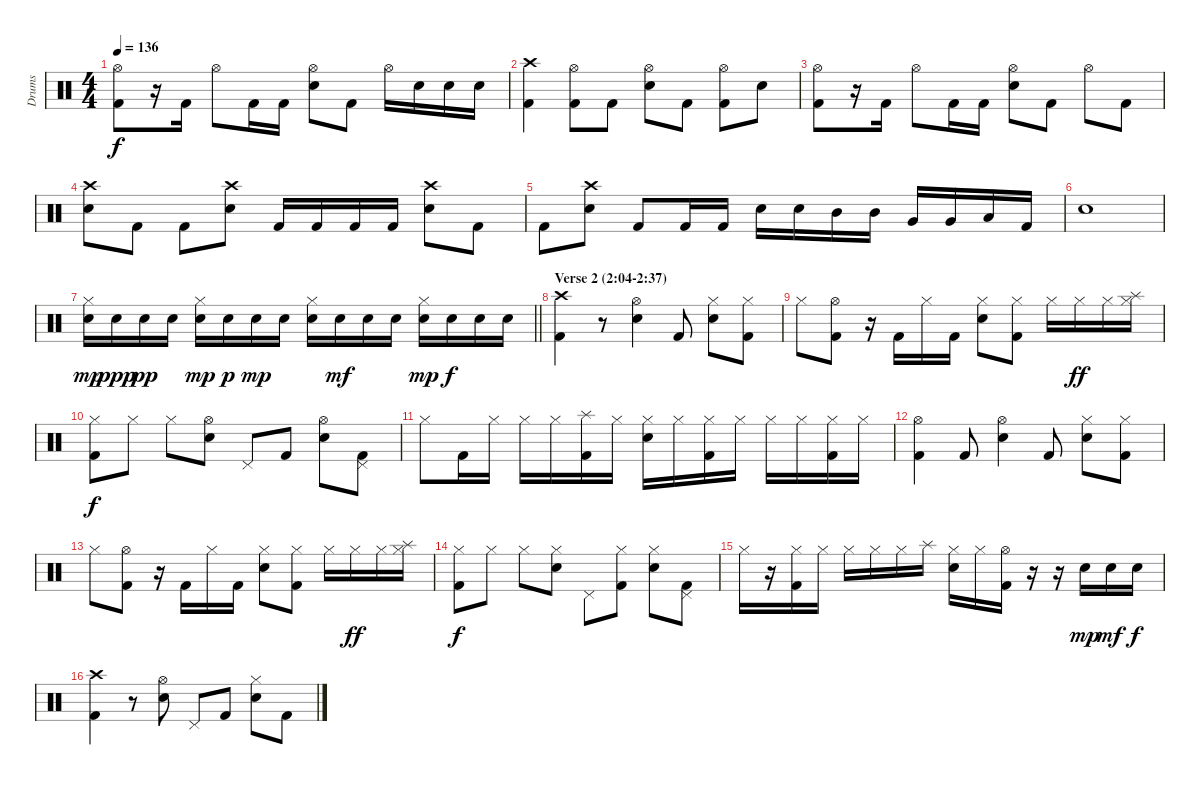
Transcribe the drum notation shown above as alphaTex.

\track ("Drums" "Drums") {instrument percussion}
\staff {score}
\articulation defaults
\ts (4 4)
\tempo 136
\clef neutral
\ks c
("Kick (hit) 2" "Hi-Hat (open)").8{dy f} r.16 "Kick (hit) 2".16 "Hi-Hat (open)".8 "Kick (hit) 2".16 "Kick (hit) 2".16 ("Hi-Hat (open)" "Snare (hit) 2").8 "Kick (hit) 2".8 "Hi-Hat (open)".16 "Snare (hit) 2".16 "Snare (hit) 2".16 "Snare (hit) 2".16 |
("Crash high (hit)" "Kick (hit) 2").4 ("Kick (hit) 2" "Hi-Hat (open)").8 "Kick (hit) 2".8 ("Snare (hit) 2" "Hi-Hat (open)").8 "Kick (hit) 2".8 ("Kick (hit) 2" "Hi-Hat (open)").8 "Snare (hit) 2".8 |
("Kick (hit) 2" "Hi-Hat (open)").8 r.16 "Kick (hit) 2".16 "Hi-Hat (open)".8 "Kick (hit) 2".16 "Kick (hit) 2".16 ("Hi-Hat (open)" "Snare (hit) 2").8 "Kick (hit) 2".8 "Hi-Hat (open)".8 "Kick (hit) 2".8 |
("Crash high (hit)" "Snare (hit) 2").8 "Kick (hit) 2".8 "Kick (hit) 2".8 ("Snare (hit) 2" "Crash high (hit)").8 "Kick (hit) 2".16 "Kick (hit) 2".16 "Kick (hit) 2".16 "Kick (hit) 2".16 ("Crash high (hit)" "Snare (hit) 2").8 "Kick (hit) 2".8 |
"Kick (hit) 2".8 ("Crash high (hit)" "Snare (hit) 2").8 "Kick (hit) 2".8 "Kick (hit) 2".16 "Kick (hit) 2".16 "Snare (hit) 2".16 "Snare (hit) 2".16 "Mid Tom (hit)".16 "Mid Tom (hit)".16 "Very Low Tom (hit)".16 "Very Low Tom (hit)".16 "Low Floor Tom (hit)".16 "Kick (hit) 2".16 |
"Snare (hit) 2".1 |
\barLineRight lightlight
("Snare (hit) 2" "Hi-Hat (closed)").16{dy mp} "Snare (hit) 2".16{dy ppp} "Snare (hit) 2".16{dy pp} "Snare (hit) 2".16 ("Snare (hit) 2" "Hi-Hat (closed)").16{dy mp} "Snare (hit) 2".16{dy p} "Snare (hit) 2".16{dy mp} "Snare (hit) 2".16 ("Snare (hit) 2" "Hi-Hat (closed)").16 "Snare (hit) 2".16{dy mf} "Snare (hit) 2".16 "Snare (hit) 2".16 ("Snare (hit) 2" "Hi-Hat (closed)").16{dy mp} "Snare (hit) 2".16{dy f} "Snare (hit) 2".16 "Snare (hit) 2".16 |
\section ("" "Verse 2 (2:04-2:37)")
("Kick (hit) 2" "Crash high (hit)").4 r.8 ("Snare (hit) 2" "Hi-Hat (open)").4 "Kick (hit) 2".8 ("Hi-Hat (closed)" "Snare (hit) 2").8 ("Hi-Hat (closed)" "Kick (hit) 2").8 |
"Hi-Hat (closed)".8 ("Kick (hit) 2" "Hi-Hat (open)").8 r.16 "Kick (hit) 2".16 "Hi-Hat (closed)".16 "Kick (hit) 2".16 ("Hi-Hat (closed)" "Snare (hit) 2").8 ("Hi-Hat (closed)" "Kick (hit) 2").8 "Hi-Hat (closed)".16 "Hi-Hat (closed)".16{dy ff} "Hi-Hat (closed)".16 ("Hi-Hat (closed)" "Splash (hit)").16 |
("Hi-Hat (closed)" "Kick (hit) 2").8{dy f} "Hi-Hat (closed)".8 "Hi-Hat (closed)".8 ("Snare (hit) 2" "Hi-Hat (open)").8 "Pedal Hi-Hat (hit)".8 "Kick (hit) 2".8 ("Hi-Hat (open)" "Snare (hit) 2").8 ("Pedal Hi-Hat (hit)" "Kick (hit) 2").8 |
"Hi-Hat (closed)".8 "Kick (hit) 2".16 "Hi-Hat (closed)".16 "Hi-Hat (closed)".16 "Hi-Hat (closed)".16 ("Splash (hit)" "Kick (hit) 2").16 "Hi-Hat (closed)".16 ("Hi-Hat (closed)" "Snare (hit) 2").16 "Hi-Hat (closed)".16 ("Hi-Hat (closed)" "Kick (hit) 2").16 "Hi-Hat (closed)".16 "Hi-Hat (closed)".16 "Hi-Hat (closed)".16 ("Hi-Hat (closed)" "Kick (hit) 2").16 "Hi-Hat (closed)".16 |
("Hi-Hat (open)" "Kick (hit) 2").4 "Kick (hit) 2".8 ("Snare (hit) 2" "Hi-Hat (open)").4 "Kick (hit) 2".8 ("Hi-Hat (closed)" "Snare (hit) 2").8 ("Hi-Hat (closed)" "Kick (hit) 2").8 |
"Hi-Hat (closed)".8 ("Kick (hit) 2" "Hi-Hat (open)").8 r.16 "Kick (hit) 2".16 "Hi-Hat (closed)".16 "Kick (hit) 2".16 ("Hi-Hat (closed)" "Snare (hit) 2").8 ("Hi-Hat (closed)" "Kick (hit) 2").8 "Hi-Hat (closed)".16 "Hi-Hat (closed)".16{dy ff} "Hi-Hat (closed)".16 ("Hi-Hat (closed)" "Splash (hit)").16 |
("Hi-Hat (closed)" "Kick (hit) 2").8{dy f} "Hi-Hat (closed)".8 "Hi-Hat (closed)".8 ("Snare (hit) 2" "Hi-Hat (closed)").8 "Pedal Hi-Hat (hit)".8 ("Hi-Hat (closed)" "Kick (hit) 2").8 ("Hi-Hat (closed)" "Snare (hit) 2").8 ("Pedal Hi-Hat (hit)" "Kick (hit) 2").8 |
"Hi-Hat (closed)".16 r.16 ("Hi-Hat (closed)" "Kick (hit) 2").16 "Hi-Hat (closed)".16 "Hi-Hat (closed)".16 "Hi-Hat (closed)".16 "Hi-Hat (closed)".16 "Splash (hit)".16 ("Hi-Hat (closed)" "Snare (hit) 2").16 "Hi-Hat (closed)".16 ("Hi-Hat (open)" "Kick (hit) 2").16 r.16 r.16 "Snare (hit) 2".16{dy mp} "Snare (hit) 2".16{dy mf} "Snare (hit) 2".16{dy f} |
("Kick (hit) 2" "Crash high (hit)").4 r.8 ("Snare (hit) 2" "Hi-Hat (open)").8 "Pedal Hi-Hat (hit)".8 "Kick (hit) 2".8 ("Hi-Hat (closed)" "Snare (hit) 2").8 "Kick (hit) 2".8
